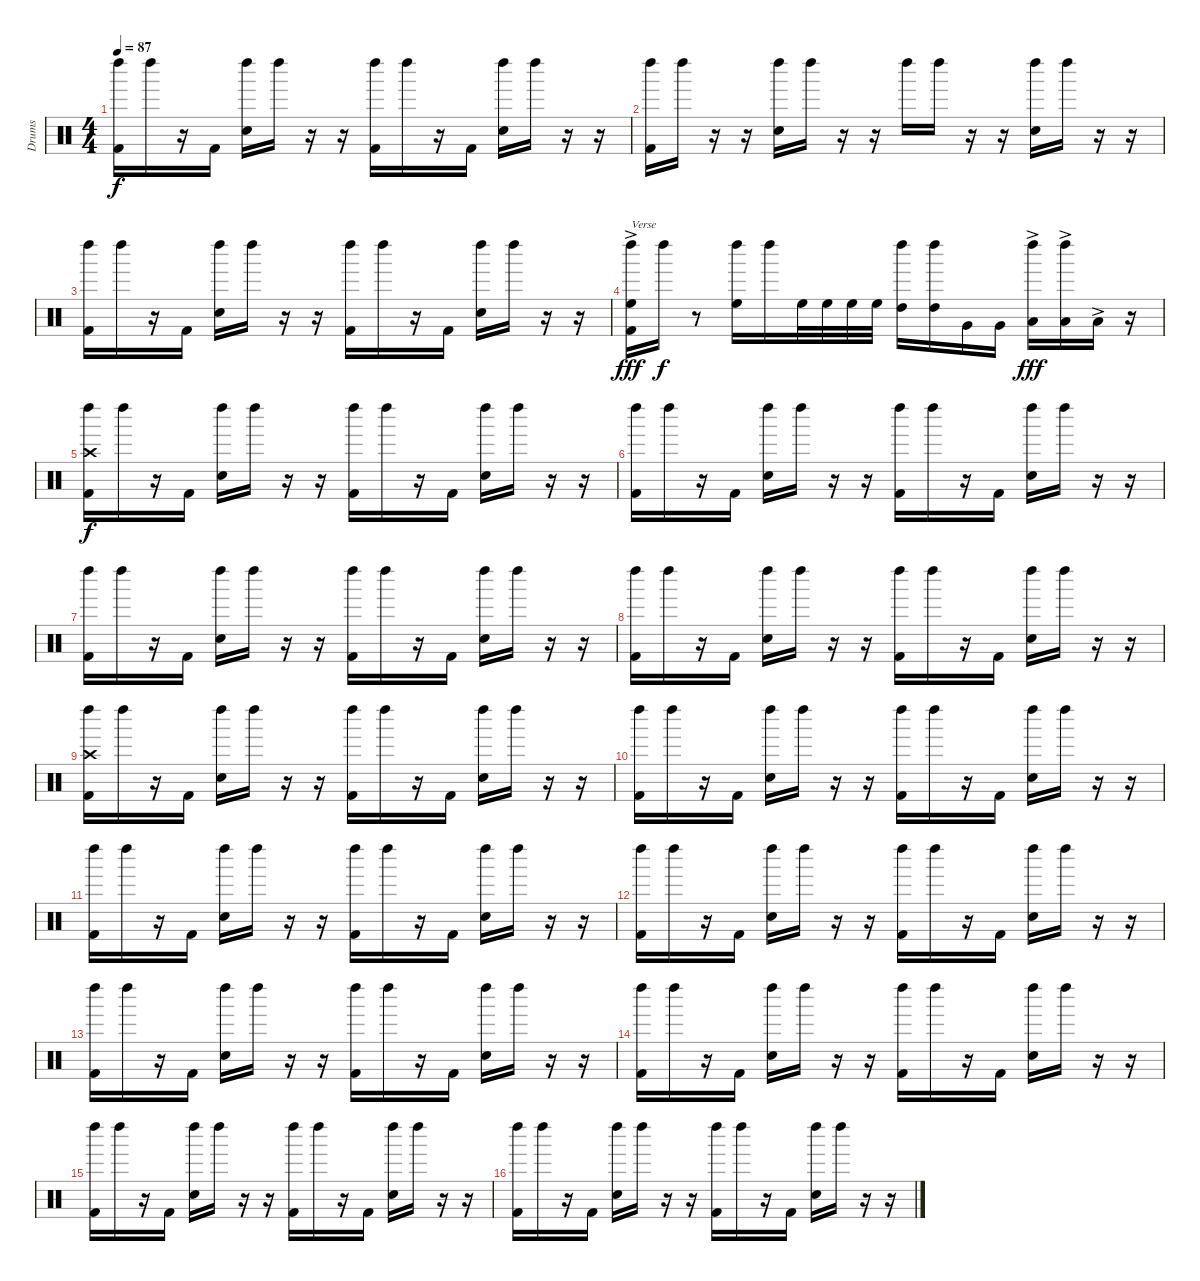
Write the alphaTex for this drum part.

\track ("Drums" "Drums") {instrument percussion}
\staff {score}
\articulation defaults
\ts (4 4)
\tempo 87
\clef neutral
\ks c
("Left Maraca (hit)" "Kick (hit) 2").16{dy f} "Left Maraca (hit)".16 r.16 "Kick (hit) 2".16 ("Left Maraca (hit)" "Hand Clap (hit)").16 "Left Maraca (hit)".16 r.16 r.16 ("Left Maraca (hit)" "Kick (hit) 2").16 "Left Maraca (hit)".16 r.16 "Kick (hit) 2".16 ("Left Maraca (hit)" "Hand Clap (hit)").16 "Left Maraca (hit)".16 r.16 r.16 |
("Left Maraca (hit)" "Kick (hit) 2").16 "Left Maraca (hit)".16 r.16 r.16 ("Left Maraca (hit)" "Hand Clap (hit)").16 "Left Maraca (hit)".16 r.16 r.16 "Left Maraca (hit)".16 "Left Maraca (hit)".16 r.16 r.16 ("Left Maraca (hit)" "Hand Clap (hit)").16 "Left Maraca (hit)".16 r.16 r.16 |
("Left Maraca (hit)" "Kick (hit) 2").16 "Left Maraca (hit)".16 r.16 "Kick (hit) 2".16 ("Left Maraca (hit)" "Hand Clap (hit)").16 "Left Maraca (hit)".16 r.16 r.16 ("Left Maraca (hit)" "Kick (hit) 2").16 "Left Maraca (hit)".16 r.16 "Kick (hit) 2".16 ("Left Maraca (hit)" "Hand Clap (hit)").16 "Left Maraca (hit)".16 r.16 r.16 |
("Left Maraca (hit)" "High Floor Tom (hit)"{ac} "Kick (hit) 2").16{txt "Verse" dy fff} "Left Maraca (hit)".16{dy f} r.8 ("Left Maraca (hit)" "High Floor Tom (hit)").16 "Left Maraca (hit)".16 "High Floor Tom (hit)".32 "High Floor Tom (hit)".32 "High Floor Tom (hit)".32 "High Floor Tom (hit)".32 ("Left Maraca (hit)" "High Tom (hit)").16 ("Left Maraca (hit)" "High Tom (hit)").16 "Very Low Tom (hit)".16 "Very Low Tom (hit)".16 ("Left Maraca (hit)" "Low Floor Tom (hit)"{ac}).16{dy fff} ("Left Maraca (hit)" "Low Floor Tom (hit)"{ac}).16 "Low Floor Tom (hit)"{ac}.16 r.16 |
("Left Maraca (hit)" "Crash high (hit)" "Kick (hit) 2").16{dy f} "Left Maraca (hit)".16 r.16 "Kick (hit) 2".16 ("Left Maraca (hit)" "Hand Clap (hit)").16 "Left Maraca (hit)".16 r.16 r.16 ("Left Maraca (hit)" "Kick (hit) 2").16 "Left Maraca (hit)".16 r.16 "Kick (hit) 2".16 ("Left Maraca (hit)" "Hand Clap (hit)").16 "Left Maraca (hit)".16 r.16 r.16 |
("Left Maraca (hit)" "Kick (hit) 2").16 "Left Maraca (hit)".16 r.16 "Kick (hit) 2".16 ("Left Maraca (hit)" "Hand Clap (hit)").16 "Left Maraca (hit)".16 r.16 r.16 ("Left Maraca (hit)" "Kick (hit) 2").16 "Left Maraca (hit)".16 r.16 "Kick (hit) 2".16 ("Left Maraca (hit)" "Hand Clap (hit)").16 "Left Maraca (hit)".16 r.16 r.16 |
("Left Maraca (hit)" "Kick (hit) 2").16 "Left Maraca (hit)".16 r.16 "Kick (hit) 2".16 ("Left Maraca (hit)" "Hand Clap (hit)").16 "Left Maraca (hit)".16 r.16 r.16 ("Left Maraca (hit)" "Kick (hit) 2").16 "Left Maraca (hit)".16 r.16 "Kick (hit) 2".16 ("Left Maraca (hit)" "Hand Clap (hit)").16 "Left Maraca (hit)".16 r.16 r.16 |
("Left Maraca (hit)" "Kick (hit) 2").16 "Left Maraca (hit)".16 r.16 "Kick (hit) 2".16 ("Left Maraca (hit)" "Hand Clap (hit)").16 "Left Maraca (hit)".16 r.16 r.16 ("Left Maraca (hit)" "Kick (hit) 2").16 "Left Maraca (hit)".16 r.16 "Kick (hit) 2".16 ("Left Maraca (hit)" "Hand Clap (hit)").16 "Left Maraca (hit)".16 r.16 r.16 |
("Left Maraca (hit)" "Crash high (hit)" "Kick (hit) 2").16 "Left Maraca (hit)".16 r.16 "Kick (hit) 2".16 ("Left Maraca (hit)" "Hand Clap (hit)").16 "Left Maraca (hit)".16 r.16 r.16 ("Left Maraca (hit)" "Kick (hit) 2").16 "Left Maraca (hit)".16 r.16 "Kick (hit) 2".16 ("Left Maraca (hit)" "Hand Clap (hit)").16 "Left Maraca (hit)".16 r.16 r.16 |
("Left Maraca (hit)" "Kick (hit) 2").16 "Left Maraca (hit)".16 r.16 "Kick (hit) 2".16 ("Left Maraca (hit)" "Hand Clap (hit)").16 "Left Maraca (hit)".16 r.16 r.16 ("Left Maraca (hit)" "Kick (hit) 2").16 "Left Maraca (hit)".16 r.16 "Kick (hit) 2".16 ("Left Maraca (hit)" "Hand Clap (hit)").16 "Left Maraca (hit)".16 r.16 r.16 |
("Left Maraca (hit)" "Kick (hit) 2").16 "Left Maraca (hit)".16 r.16 "Kick (hit) 2".16 ("Left Maraca (hit)" "Hand Clap (hit)").16 "Left Maraca (hit)".16 r.16 r.16 ("Left Maraca (hit)" "Kick (hit) 2").16 "Left Maraca (hit)".16 r.16 "Kick (hit) 2".16 ("Left Maraca (hit)" "Hand Clap (hit)").16 "Left Maraca (hit)".16 r.16 r.16 |
("Left Maraca (hit)" "Kick (hit) 2").16 "Left Maraca (hit)".16 r.16 "Kick (hit) 2".16 ("Left Maraca (hit)" "Hand Clap (hit)").16 "Left Maraca (hit)".16 r.16 r.16 ("Left Maraca (hit)" "Kick (hit) 2").16 "Left Maraca (hit)".16 r.16 "Kick (hit) 2".16 ("Left Maraca (hit)" "Hand Clap (hit)").16 "Left Maraca (hit)".16 r.16 r.16 |
("Left Maraca (hit)" "Kick (hit) 2").16 "Left Maraca (hit)".16 r.16 "Kick (hit) 2".16 ("Left Maraca (hit)" "Hand Clap (hit)").16 "Left Maraca (hit)".16 r.16 r.16 ("Left Maraca (hit)" "Kick (hit) 2").16 "Left Maraca (hit)".16 r.16 "Kick (hit) 2".16 ("Left Maraca (hit)" "Hand Clap (hit)").16 "Left Maraca (hit)".16 r.16 r.16 |
("Left Maraca (hit)" "Kick (hit) 2").16 "Left Maraca (hit)".16 r.16 "Kick (hit) 2".16 ("Left Maraca (hit)" "Hand Clap (hit)").16 "Left Maraca (hit)".16 r.16 r.16 ("Left Maraca (hit)" "Kick (hit) 2").16 "Left Maraca (hit)".16 r.16 "Kick (hit) 2".16 ("Left Maraca (hit)" "Hand Clap (hit)").16 "Left Maraca (hit)".16 r.16 r.16 |
("Left Maraca (hit)" "Kick (hit) 2").16 "Left Maraca (hit)".16 r.16 "Kick (hit) 2".16 ("Left Maraca (hit)" "Hand Clap (hit)").16 "Left Maraca (hit)".16 r.16 r.16 ("Left Maraca (hit)" "Kick (hit) 2").16 "Left Maraca (hit)".16 r.16 "Kick (hit) 2".16 ("Left Maraca (hit)" "Hand Clap (hit)").16 "Left Maraca (hit)".16 r.16 r.16 |
("Left Maraca (hit)" "Kick (hit) 2").16 "Left Maraca (hit)".16 r.16 "Kick (hit) 2".16 ("Left Maraca (hit)" "Hand Clap (hit)").16 "Left Maraca (hit)".16 r.16 r.16 ("Left Maraca (hit)" "Kick (hit) 2").16 "Left Maraca (hit)".16 r.16 "Kick (hit) 2".16 ("Left Maraca (hit)" "Hand Clap (hit)").16 "Left Maraca (hit)".16 r.16 r.16
